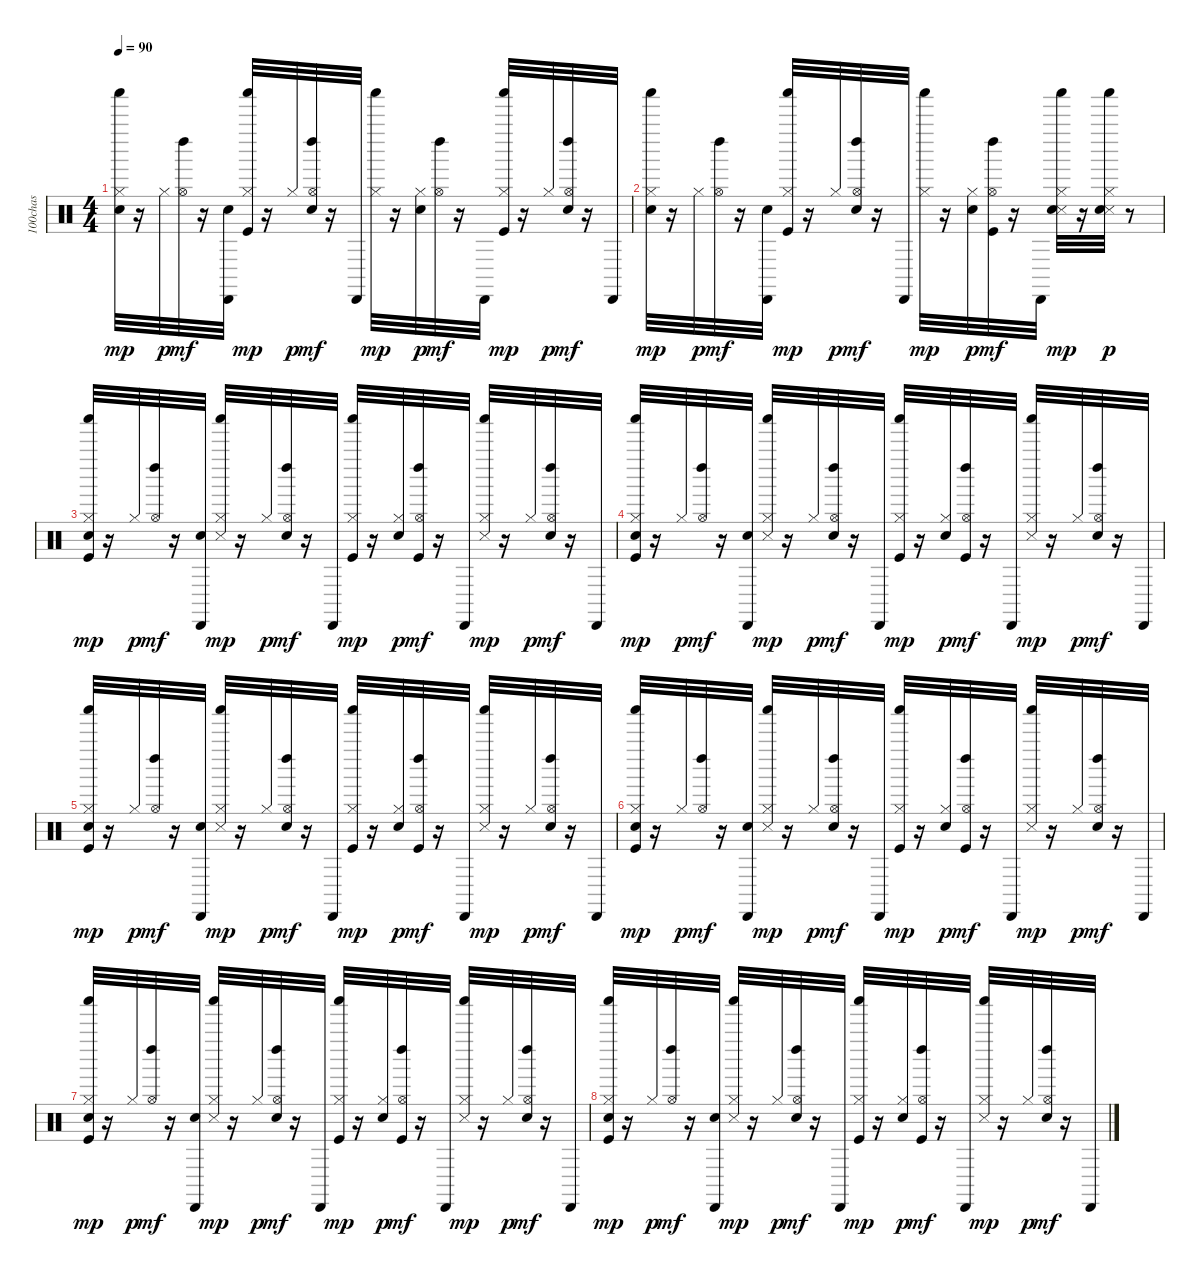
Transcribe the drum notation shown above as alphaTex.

\track ("100chas" "100chas") {instrument percussion}
\staff {score}
\articulation defaults
\ts (4 4)
\tempo 90
\clef neutral
\ks c
("Hand Clap (hit)" "Hi-Hat (closed)" "Shaker (hit)").32{dy mp} r.16 "Hi-Hat (closed)".32{dy p} ("Hi-Hat (open)" "Left Maraca (hit)").32{dy mf} r.16 ("Hand Clap (hit)" "Cabasa (hit)").32 ("Kick (hit)" "Hi-Hat (closed)" "Shaker (hit)").32{dy mp} r.16 "Hi-Hat (closed)".32{dy p} ("Hand Clap (hit)" "Hi-Hat (open)" "Left Maraca (hit)").32{dy mf} r.16 "Cabasa (hit)".32 ("Hi-Hat (closed)" "Shaker (hit)").32{dy mp} r.16 ("Hand Clap (hit)" "Hi-Hat (closed)").32{dy p} ("Hi-Hat (open)" "Left Maraca (hit)").32{dy mf} r.16 "Cabasa (hit)".32 ("Kick (hit)" "Hi-Hat (closed)" "Shaker (hit)").32{dy mp} r.16 "Hi-Hat (closed)".32{dy p} ("Hand Clap (hit)" "Hi-Hat (open)" "Left Maraca (hit)").32{dy mf} r.16 "Cabasa (hit)".32 |
("Hand Clap (hit)" "Hi-Hat (closed)" "Shaker (hit)").32{dy mp} r.16 "Hi-Hat (closed)".32{dy p} ("Hi-Hat (open)" "Left Maraca (hit)").32{dy mf} r.16 ("Hand Clap (hit)" "Cabasa (hit)").32 ("Kick (hit)" "Hi-Hat (closed)" "Shaker (hit)").32{dy mp} r.16 "Hi-Hat (closed)".32{dy p} ("Hand Clap (hit)" "Hi-Hat (open)" "Left Maraca (hit)").32{dy mf} r.16 "Cabasa (hit)".32 ("Hi-Hat (closed)" "Shaker (hit)").32{dy mp} r.16 ("Hand Clap (hit)" "Hi-Hat (closed)").32{dy p} ("Kick (hit)" "Hi-Hat (open)" "Left Maraca (hit)").32{dy mf} r.16 "Cabasa (hit)".32 ("Snare (side stick) 3" "Hand Clap (hit)" "Hi-Hat (closed)" "Shaker (hit)").32{dy mp} r.16 ("Snare (side stick) 3" "Hand Clap (hit)" "Hi-Hat (closed)" "Shaker (hit)").32{dy p} r.8 |
("Kick (hit)" "Hand Clap (hit)" "Hi-Hat (closed)" "Shaker (hit)").32{dy mp} r.16 "Hi-Hat (closed)".32{dy p} ("Hi-Hat (open)" "Left Maraca (hit)").32{dy mf} r.16 ("Hand Clap (hit)" "Cabasa (hit)").32 ("Snare (side stick) 3" "Hi-Hat (closed)" "Shaker (hit)").32{dy mp} r.16 "Hi-Hat (closed)".32{dy p} ("Hand Clap (hit)" "Hi-Hat (open)" "Left Maraca (hit)").32{dy mf} r.16 "Cabasa (hit)".32 ("Kick (hit)" "Hi-Hat (closed)" "Shaker (hit)").32{dy mp} r.16 ("Hand Clap (hit)" "Hi-Hat (closed)").32{dy p} ("Kick (hit)" "Hi-Hat (open)" "Left Maraca (hit)").32{dy mf} r.16 "Cabasa (hit)".32 ("Snare (side stick) 3" "Hi-Hat (closed)" "Shaker (hit)").32{dy mp} r.16 "Hi-Hat (closed)".32{dy p} ("Hand Clap (hit)" "Hi-Hat (open)" "Left Maraca (hit)").32{dy mf} r.16 "Cabasa (hit)".32 |
("Kick (hit)" "Hand Clap (hit)" "Hi-Hat (closed)" "Shaker (hit)").32{dy mp} r.16 "Hi-Hat (closed)".32{dy p} ("Hi-Hat (open)" "Left Maraca (hit)").32{dy mf} r.16 ("Hand Clap (hit)" "Cabasa (hit)").32 ("Snare (side stick) 3" "Hi-Hat (closed)" "Shaker (hit)").32{dy mp} r.16 "Hi-Hat (closed)".32{dy p} ("Hand Clap (hit)" "Hi-Hat (open)" "Left Maraca (hit)").32{dy mf} r.16 "Cabasa (hit)".32 ("Kick (hit)" "Hi-Hat (closed)" "Shaker (hit)").32{dy mp} r.16 ("Hand Clap (hit)" "Hi-Hat (closed)").32{dy p} ("Kick (hit)" "Hi-Hat (open)" "Left Maraca (hit)").32{dy mf} r.16 "Cabasa (hit)".32 ("Snare (side stick) 3" "Hi-Hat (closed)" "Shaker (hit)").32{dy mp} r.16 "Hi-Hat (closed)".32{dy p} ("Hand Clap (hit)" "Hi-Hat (open)" "Left Maraca (hit)").32{dy mf} r.16 "Cabasa (hit)".32 |
("Kick (hit)" "Hand Clap (hit)" "Hi-Hat (closed)" "Shaker (hit)").32{dy mp} r.16 "Hi-Hat (closed)".32{dy p} ("Hi-Hat (open)" "Left Maraca (hit)").32{dy mf} r.16 ("Hand Clap (hit)" "Cabasa (hit)").32 ("Snare (side stick) 3" "Hi-Hat (closed)" "Shaker (hit)").32{dy mp} r.16 "Hi-Hat (closed)".32{dy p} ("Hand Clap (hit)" "Hi-Hat (open)" "Left Maraca (hit)").32{dy mf} r.16 "Cabasa (hit)".32 ("Kick (hit)" "Hi-Hat (closed)" "Shaker (hit)").32{dy mp} r.16 ("Hand Clap (hit)" "Hi-Hat (closed)").32{dy p} ("Kick (hit)" "Hi-Hat (open)" "Left Maraca (hit)").32{dy mf} r.16 "Cabasa (hit)".32 ("Snare (side stick) 3" "Hi-Hat (closed)" "Shaker (hit)").32{dy mp} r.16 "Hi-Hat (closed)".32{dy p} ("Hand Clap (hit)" "Hi-Hat (open)" "Left Maraca (hit)").32{dy mf} r.16 "Cabasa (hit)".32 |
("Kick (hit)" "Hand Clap (hit)" "Hi-Hat (closed)" "Shaker (hit)").32{dy mp} r.16 "Hi-Hat (closed)".32{dy p} ("Hi-Hat (open)" "Left Maraca (hit)").32{dy mf} r.16 ("Hand Clap (hit)" "Cabasa (hit)").32 ("Snare (side stick) 3" "Hi-Hat (closed)" "Shaker (hit)").32{dy mp} r.16 "Hi-Hat (closed)".32{dy p} ("Hand Clap (hit)" "Hi-Hat (open)" "Left Maraca (hit)").32{dy mf} r.16 "Cabasa (hit)".32 ("Kick (hit)" "Hi-Hat (closed)" "Shaker (hit)").32{dy mp} r.16 ("Hand Clap (hit)" "Hi-Hat (closed)").32{dy p} ("Kick (hit)" "Hi-Hat (open)" "Left Maraca (hit)").32{dy mf} r.16 "Cabasa (hit)".32 ("Snare (side stick) 3" "Hi-Hat (closed)" "Shaker (hit)").32{dy mp} r.16 "Hi-Hat (closed)".32{dy p} ("Hand Clap (hit)" "Hi-Hat (open)" "Left Maraca (hit)").32{dy mf} r.16 "Cabasa (hit)".32 |
("Kick (hit)" "Hand Clap (hit)" "Hi-Hat (closed)" "Shaker (hit)").32{dy mp} r.16 "Hi-Hat (closed)".32{dy p} ("Hi-Hat (open)" "Left Maraca (hit)").32{dy mf} r.16 ("Hand Clap (hit)" "Cabasa (hit)").32 ("Snare (side stick) 3" "Hi-Hat (closed)" "Shaker (hit)").32{dy mp} r.16 "Hi-Hat (closed)".32{dy p} ("Hand Clap (hit)" "Hi-Hat (open)" "Left Maraca (hit)").32{dy mf} r.16 "Cabasa (hit)".32 ("Kick (hit)" "Hi-Hat (closed)" "Shaker (hit)").32{dy mp} r.16 ("Hand Clap (hit)" "Hi-Hat (closed)").32{dy p} ("Kick (hit)" "Hi-Hat (open)" "Left Maraca (hit)").32{dy mf} r.16 "Cabasa (hit)".32 ("Snare (side stick) 3" "Hi-Hat (closed)" "Shaker (hit)").32{dy mp} r.16 "Hi-Hat (closed)".32{dy p} ("Hand Clap (hit)" "Hi-Hat (open)" "Left Maraca (hit)").32{dy mf} r.16 "Cabasa (hit)".32 |
("Kick (hit)" "Hand Clap (hit)" "Hi-Hat (closed)" "Shaker (hit)").32{dy mp} r.16 "Hi-Hat (closed)".32{dy p} ("Hi-Hat (open)" "Left Maraca (hit)").32{dy mf} r.16 ("Hand Clap (hit)" "Cabasa (hit)").32 ("Snare (side stick) 3" "Hi-Hat (closed)" "Shaker (hit)").32{dy mp} r.16 "Hi-Hat (closed)".32{dy p} ("Hand Clap (hit)" "Hi-Hat (open)" "Left Maraca (hit)").32{dy mf} r.16 "Cabasa (hit)".32 ("Kick (hit)" "Hi-Hat (closed)" "Shaker (hit)").32{dy mp} r.16 ("Hand Clap (hit)" "Hi-Hat (closed)").32{dy p} ("Kick (hit)" "Hi-Hat (open)" "Left Maraca (hit)").32{dy mf} r.16 "Cabasa (hit)".32 ("Snare (side stick) 3" "Hi-Hat (closed)" "Shaker (hit)").32{dy mp} r.16 "Hi-Hat (closed)".32{dy p} ("Hand Clap (hit)" "Hi-Hat (open)" "Left Maraca (hit)").32{dy mf} r.16 "Cabasa (hit)".32
